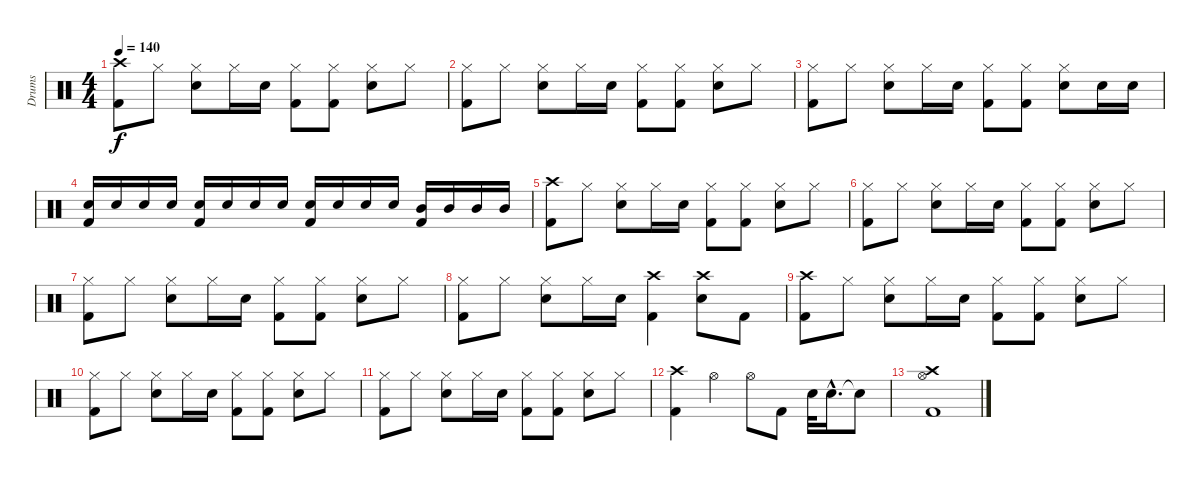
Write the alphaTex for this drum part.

\track ("Drums" "Drums") {instrument percussion}
\staff {score}
\articulation defaults
\ts (4 4)
\tempo 140
\clef neutral
\ks c
("Crash high (hit)" "Kick (hit) 2").8{dy f} "Hi-Hat (closed)".8 ("Hi-Hat (closed)" "Snare (hit) 2").8 "Hi-Hat (closed)".16 "Snare (hit) 2".16 ("Hi-Hat (closed)" "Kick (hit) 2").8 ("Hi-Hat (closed)" "Kick (hit) 2").8 ("Hi-Hat (closed)" "Snare (hit) 2").8 "Hi-Hat (closed)".8 |
("Hi-Hat (closed)" "Kick (hit) 2").8 "Hi-Hat (closed)".8 ("Hi-Hat (closed)" "Snare (hit) 2").8 "Hi-Hat (closed)".16 "Snare (hit) 2".16 ("Hi-Hat (closed)" "Kick (hit) 2").8 ("Hi-Hat (closed)" "Kick (hit) 2").8 ("Hi-Hat (closed)" "Snare (hit) 2").8 "Hi-Hat (closed)".8 |
("Hi-Hat (closed)" "Kick (hit) 2").8 "Hi-Hat (closed)".8 ("Hi-Hat (closed)" "Snare (hit) 2").8 "Hi-Hat (closed)".16 "Snare (hit) 2".16 ("Hi-Hat (closed)" "Kick (hit) 2").8 ("Hi-Hat (closed)" "Kick (hit) 2").8 ("Hi-Hat (closed)" "Snare (hit) 2").8 "Snare (hit) 2".16 "Snare (hit) 2".16 |
("Snare (hit) 2" "Kick (hit) 2").16 "Snare (hit) 2".16 "Snare (hit) 2".16 "Snare (hit) 2".16 ("Snare (hit) 2" "Kick (hit) 2").16 "Snare (hit) 2".16 "Snare (hit) 2".16 "Snare (hit) 2".16 ("Snare (hit) 2" "Kick (hit) 2").16 "Snare (hit) 2".16 "Snare (hit) 2".16 "Snare (hit) 2".16 ("Mid Tom (hit)" "Kick (hit) 2").16 "Mid Tom (hit)".16 "Mid Tom (hit)".16 "Mid Tom (hit)".16 |
("Crash high (hit)" "Kick (hit) 2").8 "Hi-Hat (closed)".8 ("Hi-Hat (closed)" "Snare (hit) 2").8 "Hi-Hat (closed)".16 "Snare (hit) 2".16 ("Hi-Hat (closed)" "Kick (hit) 2").8 ("Hi-Hat (closed)" "Kick (hit) 2").8 ("Hi-Hat (closed)" "Snare (hit) 2").8 "Hi-Hat (closed)".8 |
("Hi-Hat (closed)" "Kick (hit) 2").8 "Hi-Hat (closed)".8 ("Hi-Hat (closed)" "Snare (hit) 2").8 "Hi-Hat (closed)".16 "Snare (hit) 2".16 ("Hi-Hat (closed)" "Kick (hit) 2").8 ("Hi-Hat (closed)" "Kick (hit) 2").8 ("Hi-Hat (closed)" "Snare (hit) 2").8 "Hi-Hat (closed)".8 |
("Hi-Hat (closed)" "Kick (hit) 2").8 "Hi-Hat (closed)".8 ("Hi-Hat (closed)" "Snare (hit) 2").8 "Hi-Hat (closed)".16 "Snare (hit) 2".16 ("Hi-Hat (closed)" "Kick (hit) 2").8 ("Hi-Hat (closed)" "Kick (hit) 2").8 ("Hi-Hat (closed)" "Snare (hit) 2").8 "Hi-Hat (closed)".8 |
("Hi-Hat (closed)" "Kick (hit) 2").8 "Hi-Hat (closed)".8 ("Hi-Hat (closed)" "Snare (hit) 2").8 "Hi-Hat (closed)".16 "Snare (hit) 2".16 ("Crash high (hit)" "Kick (hit) 2").4 ("Crash high (hit)" "Snare (hit) 2").8 "Kick (hit) 2".8 |
("Crash high (hit)" "Kick (hit) 2").8 "Hi-Hat (closed)".8 ("Hi-Hat (closed)" "Snare (hit) 2").8 "Hi-Hat (closed)".16 "Snare (hit) 2".16 ("Hi-Hat (closed)" "Kick (hit) 2").8 ("Hi-Hat (closed)" "Kick (hit) 2").8 ("Hi-Hat (closed)" "Snare (hit) 2").8 "Hi-Hat (closed)".8 |
("Hi-Hat (closed)" "Kick (hit) 2").8 "Hi-Hat (closed)".8 ("Hi-Hat (closed)" "Snare (hit) 2").8 "Hi-Hat (closed)".16 "Snare (hit) 2".16 ("Hi-Hat (closed)" "Kick (hit) 2").8 ("Hi-Hat (closed)" "Kick (hit) 2").8 ("Hi-Hat (closed)" "Snare (hit) 2").8 "Hi-Hat (closed)".8 |
("Hi-Hat (closed)" "Kick (hit) 2").8 "Hi-Hat (closed)".8 ("Hi-Hat (closed)" "Snare (hit) 2").8 "Hi-Hat (closed)".16 "Snare (hit) 2".16 ("Hi-Hat (closed)" "Kick (hit) 2").8 ("Hi-Hat (closed)" "Kick (hit) 2").8 ("Hi-Hat (closed)" "Snare (hit) 2").8 "Hi-Hat (closed)".8 |
("Crash high (hit)" "Kick (hit) 2").4 "Hi-Hat (open)".4 "Hi-Hat (open)".8 "Kick (hit) 2".8 "Snare (hit) 2".32 "Snare (hit) 2"{hac}.16{d} "Snare (hit)"{t}.8 |
("Crash high (hit)" "Hi-Hat (open)" "Kick (hit) 2").1
